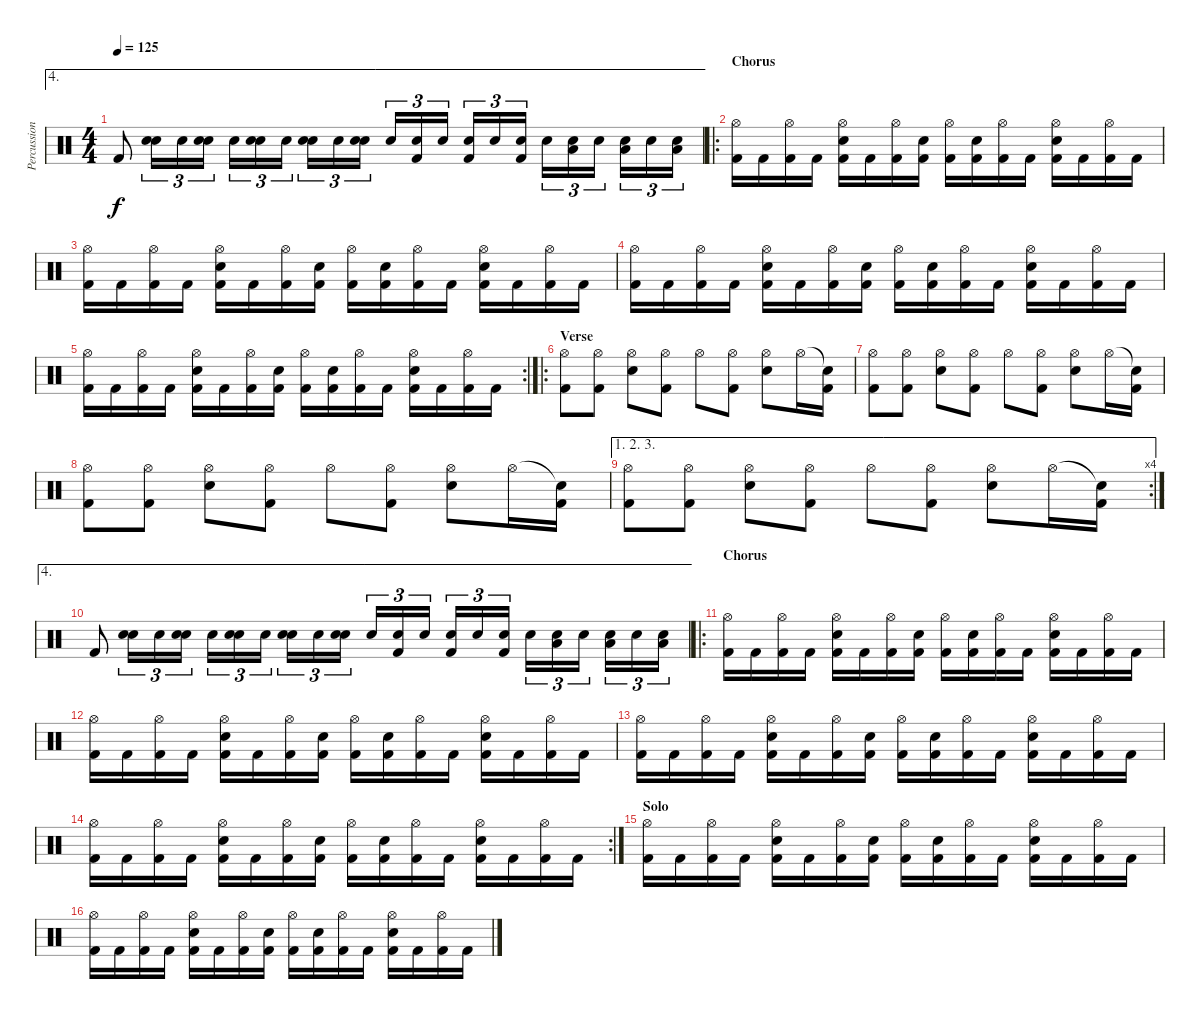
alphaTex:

\track ("Percussion" "Percussion") {instrument percussion}
\staff {score}
\articulation defaults
\ae 4
\ts (4 4)
\tempo 125
\clef neutral
\ks c "Kick (hit) 2".8{dy f}
("Snare (hit) 2" "Electric Snare (hit)").16{tu (3 2)} "Electric Snare (hit)".16{tu (3 2)} ("Snare (hit) 2" "Electric Snare (hit)").16{tu (3 2)} "Electric Snare (hit)".16{tu (3 2)} ("Snare (hit) 2" "Electric Snare (hit)").16{tu (3 2)} "Electric Snare (hit)".16{tu (3 2)} ("Snare (hit) 2" "Electric Snare (hit)").16{tu (3 2)} "Electric Snare (hit)".16{tu (3 2)} ("Snare (hit) 2" "Electric Snare (hit)").16{tu (3 2)} "Electric Snare (hit)".16{tu (3 2)} ("Kick (hit) 2" "Electric Snare (hit)").16{tu (3 2)} "Electric Snare (hit)".16{tu (3 2)} ("Kick (hit) 2" "Electric Snare (hit)").16{tu (3 2)} "Electric Snare (hit)".16{tu (3 2)} ("Kick (hit) 2" "Electric Snare (hit)").16{tu (3 2)} "Electric Snare (hit)".16{tu (3 2)} ("Low Floor Tom (hit)" "Electric Snare (hit)").16{tu (3 2)} "Electric Snare (hit)".16{tu (3 2)} ("Low Floor Tom (hit)" "Electric Snare (hit)").16{tu (3 2)} "Electric Snare (hit)".16{tu (3 2)} ("Low Floor Tom (hit)" "Electric Snare (hit)").16{tu (3 2)} |
\ro
\section ("" "Chorus")
("Hi-Hat (open)" "Kick (hit) 2").16 "Kick (hit) 2".16 ("Hi-Hat (open)" "Kick (hit) 2").16 "Kick (hit) 2".16 ("Hi-Hat (open)" "Electric Snare (hit)" "Kick (hit) 2").16 "Kick (hit) 2".16 ("Hi-Hat (open)" "Kick (hit) 2").16 ("Snare (hit) 2" "Kick (hit) 2").16 ("Hi-Hat (open)" "Kick (hit) 2").16 ("Snare (hit) 2" "Kick (hit) 2").16 ("Hi-Hat (open)" "Kick (hit) 2").16 "Kick (hit) 2".16 ("Hi-Hat (open)" "Electric Snare (hit)" "Kick (hit) 2").16 "Kick (hit) 2".16 ("Hi-Hat (open)" "Kick (hit) 2").16 "Kick (hit) 2".16 |
("Hi-Hat (open)" "Kick (hit) 2").16 "Kick (hit) 2".16 ("Hi-Hat (open)" "Kick (hit) 2").16 "Kick (hit) 2".16 ("Hi-Hat (open)" "Electric Snare (hit)" "Kick (hit) 2").16 "Kick (hit) 2".16 ("Hi-Hat (open)" "Kick (hit) 2").16 ("Snare (hit) 2" "Kick (hit) 2").16 ("Hi-Hat (open)" "Kick (hit) 2").16 ("Snare (hit) 2" "Kick (hit) 2").16 ("Hi-Hat (open)" "Kick (hit) 2").16 "Kick (hit) 2".16 ("Hi-Hat (open)" "Electric Snare (hit)" "Kick (hit) 2").16 "Kick (hit) 2".16 ("Hi-Hat (open)" "Kick (hit) 2").16 "Kick (hit) 2".16 |
("Hi-Hat (open)" "Kick (hit) 2").16 "Kick (hit) 2".16 ("Hi-Hat (open)" "Kick (hit) 2").16 "Kick (hit) 2".16 ("Hi-Hat (open)" "Electric Snare (hit)" "Kick (hit) 2").16 "Kick (hit) 2".16 ("Hi-Hat (open)" "Kick (hit) 2").16 ("Snare (hit) 2" "Kick (hit) 2").16 ("Hi-Hat (open)" "Kick (hit) 2").16 ("Snare (hit) 2" "Kick (hit) 2").16 ("Hi-Hat (open)" "Kick (hit) 2").16 "Kick (hit) 2".16 ("Hi-Hat (open)" "Electric Snare (hit)" "Kick (hit) 2").16 "Kick (hit) 2".16 ("Hi-Hat (open)" "Kick (hit) 2").16 "Kick (hit) 2".16 |
\rc 2
("Hi-Hat (open)" "Kick (hit) 2").16 "Kick (hit) 2".16 ("Hi-Hat (open)" "Kick (hit) 2").16 "Kick (hit) 2".16 ("Hi-Hat (open)" "Electric Snare (hit)" "Kick (hit) 2").16 "Kick (hit) 2".16 ("Hi-Hat (open)" "Kick (hit) 2").16 ("Snare (hit) 2" "Kick (hit) 2").16 ("Hi-Hat (open)" "Kick (hit) 2").16 ("Snare (hit) 2" "Kick (hit) 2").16 ("Hi-Hat (open)" "Kick (hit) 2").16 "Kick (hit) 2".16 ("Hi-Hat (open)" "Electric Snare (hit)" "Kick (hit) 2").16 "Kick (hit) 2".16 ("Hi-Hat (open)" "Kick (hit) 2").16 "Kick (hit) 2".16 |
\ro
\section ("" "Verse")
("Hi-Hat (open)" "Kick (hit) 2").8 ("Hi-Hat (open)" "Kick (hit) 2").8 ("Hi-Hat (open)" "Electric Snare (hit)").8 ("Hi-Hat (open)" "Kick (hit) 2").8 "Hi-Hat (open)".8 ("Hi-Hat (open)" "Kick (hit) 2").8 ("Hi-Hat (open)" "Electric Snare (hit)").8 "Hi-Hat (open)".16 ("Snare (hit)"{t} "Kick (hit) 2").16 |
("Hi-Hat (open)" "Kick (hit) 2").8 ("Hi-Hat (open)" "Kick (hit) 2").8 ("Hi-Hat (open)" "Electric Snare (hit)").8 ("Hi-Hat (open)" "Kick (hit) 2").8 "Hi-Hat (open)".8 ("Hi-Hat (open)" "Kick (hit) 2").8 ("Hi-Hat (open)" "Electric Snare (hit)").8 "Hi-Hat (open)".16 ("Snare (hit)"{t} "Kick (hit) 2").16 |
("Hi-Hat (open)" "Kick (hit) 2").8 ("Hi-Hat (open)" "Kick (hit) 2").8 ("Hi-Hat (open)" "Electric Snare (hit)").8 ("Hi-Hat (open)" "Kick (hit) 2").8 "Hi-Hat (open)".8 ("Hi-Hat (open)" "Kick (hit) 2").8 ("Hi-Hat (open)" "Electric Snare (hit)").8 "Hi-Hat (open)".16 ("Snare (hit)"{t} "Kick (hit) 2").16 |
\ae (1 2 3)
\rc 4
("Hi-Hat (open)" "Kick (hit) 2").8 ("Hi-Hat (open)" "Kick (hit) 2").8 ("Hi-Hat (open)" "Electric Snare (hit)").8 ("Hi-Hat (open)" "Kick (hit) 2").8 "Hi-Hat (open)".8 ("Hi-Hat (open)" "Kick (hit) 2").8 ("Hi-Hat (open)" "Electric Snare (hit)").8 "Hi-Hat (open)".16 ("Snare (hit)"{t} "Kick (hit) 2").16 |
\ae 4 "Kick (hit) 2".8
("Snare (hit) 2" "Electric Snare (hit)").16{tu (3 2)} "Electric Snare (hit)".16{tu (3 2)} ("Snare (hit) 2" "Electric Snare (hit)").16{tu (3 2)} "Electric Snare (hit)".16{tu (3 2)} ("Snare (hit) 2" "Electric Snare (hit)").16{tu (3 2)} "Electric Snare (hit)".16{tu (3 2)} ("Snare (hit) 2" "Electric Snare (hit)").16{tu (3 2)} "Electric Snare (hit)".16{tu (3 2)} ("Snare (hit) 2" "Electric Snare (hit)").16{tu (3 2)} "Electric Snare (hit)".16{tu (3 2)} ("Kick (hit) 2" "Electric Snare (hit)").16{tu (3 2)} "Electric Snare (hit)".16{tu (3 2)} ("Kick (hit) 2" "Electric Snare (hit)").16{tu (3 2)} "Electric Snare (hit)".16{tu (3 2)} ("Kick (hit) 2" "Electric Snare (hit)").16{tu (3 2)} "Electric Snare (hit)".16{tu (3 2)} ("Low Floor Tom (hit)" "Electric Snare (hit)").16{tu (3 2)} "Electric Snare (hit)".16{tu (3 2)} ("Low Floor Tom (hit)" "Electric Snare (hit)").16{tu (3 2)} "Electric Snare (hit)".16{tu (3 2)} ("Low Floor Tom (hit)" "Electric Snare (hit)").16{tu (3 2)} |
\ro
\section ("" "Chorus")
("Hi-Hat (open)" "Kick (hit) 2").16 "Kick (hit) 2".16 ("Hi-Hat (open)" "Kick (hit) 2").16 "Kick (hit) 2".16 ("Hi-Hat (open)" "Electric Snare (hit)" "Kick (hit) 2").16 "Kick (hit) 2".16 ("Hi-Hat (open)" "Kick (hit) 2").16 ("Snare (hit) 2" "Kick (hit) 2").16 ("Hi-Hat (open)" "Kick (hit) 2").16 ("Snare (hit) 2" "Kick (hit) 2").16 ("Hi-Hat (open)" "Kick (hit) 2").16 "Kick (hit) 2".16 ("Hi-Hat (open)" "Electric Snare (hit)" "Kick (hit) 2").16 "Kick (hit) 2".16 ("Hi-Hat (open)" "Kick (hit) 2").16 "Kick (hit) 2".16 |
("Hi-Hat (open)" "Kick (hit) 2").16 "Kick (hit) 2".16 ("Hi-Hat (open)" "Kick (hit) 2").16 "Kick (hit) 2".16 ("Hi-Hat (open)" "Electric Snare (hit)" "Kick (hit) 2").16 "Kick (hit) 2".16 ("Hi-Hat (open)" "Kick (hit) 2").16 ("Snare (hit) 2" "Kick (hit) 2").16 ("Hi-Hat (open)" "Kick (hit) 2").16 ("Snare (hit) 2" "Kick (hit) 2").16 ("Hi-Hat (open)" "Kick (hit) 2").16 "Kick (hit) 2".16 ("Hi-Hat (open)" "Electric Snare (hit)" "Kick (hit) 2").16 "Kick (hit) 2".16 ("Hi-Hat (open)" "Kick (hit) 2").16 "Kick (hit) 2".16 |
("Hi-Hat (open)" "Kick (hit) 2").16 "Kick (hit) 2".16 ("Hi-Hat (open)" "Kick (hit) 2").16 "Kick (hit) 2".16 ("Hi-Hat (open)" "Electric Snare (hit)" "Kick (hit) 2").16 "Kick (hit) 2".16 ("Hi-Hat (open)" "Kick (hit) 2").16 ("Snare (hit) 2" "Kick (hit) 2").16 ("Hi-Hat (open)" "Kick (hit) 2").16 ("Snare (hit) 2" "Kick (hit) 2").16 ("Hi-Hat (open)" "Kick (hit) 2").16 "Kick (hit) 2".16 ("Hi-Hat (open)" "Electric Snare (hit)" "Kick (hit) 2").16 "Kick (hit) 2".16 ("Hi-Hat (open)" "Kick (hit) 2").16 "Kick (hit) 2".16 |
\rc 2
("Hi-Hat (open)" "Kick (hit) 2").16 "Kick (hit) 2".16 ("Hi-Hat (open)" "Kick (hit) 2").16 "Kick (hit) 2".16 ("Hi-Hat (open)" "Electric Snare (hit)" "Kick (hit) 2").16 "Kick (hit) 2".16 ("Hi-Hat (open)" "Kick (hit) 2").16 ("Snare (hit) 2" "Kick (hit) 2").16 ("Hi-Hat (open)" "Kick (hit) 2").16 ("Snare (hit) 2" "Kick (hit) 2").16 ("Hi-Hat (open)" "Kick (hit) 2").16 "Kick (hit) 2".16 ("Hi-Hat (open)" "Electric Snare (hit)" "Kick (hit) 2").16 "Kick (hit) 2".16 ("Hi-Hat (open)" "Kick (hit) 2").16 "Kick (hit) 2".16 |
\section ("" "Solo")
("Hi-Hat (open)" "Kick (hit) 2").16 "Kick (hit) 2".16 ("Hi-Hat (open)" "Kick (hit) 2").16 "Kick (hit) 2".16 ("Hi-Hat (open)" "Electric Snare (hit)" "Kick (hit) 2").16 "Kick (hit) 2".16 ("Hi-Hat (open)" "Kick (hit) 2").16 ("Snare (hit) 2" "Kick (hit) 2").16 ("Hi-Hat (open)" "Kick (hit) 2").16 ("Snare (hit) 2" "Kick (hit) 2").16 ("Hi-Hat (open)" "Kick (hit) 2").16 "Kick (hit) 2".16 ("Hi-Hat (open)" "Electric Snare (hit)" "Kick (hit) 2").16 "Kick (hit) 2".16 ("Hi-Hat (open)" "Kick (hit) 2").16 "Kick (hit) 2".16 |
("Hi-Hat (open)" "Kick (hit) 2").16 "Kick (hit) 2".16 ("Hi-Hat (open)" "Kick (hit) 2").16 "Kick (hit) 2".16 ("Hi-Hat (open)" "Electric Snare (hit)" "Kick (hit) 2").16 "Kick (hit) 2".16 ("Hi-Hat (open)" "Kick (hit) 2").16 ("Snare (hit) 2" "Kick (hit) 2").16 ("Hi-Hat (open)" "Kick (hit) 2").16 ("Snare (hit) 2" "Kick (hit) 2").16 ("Hi-Hat (open)" "Kick (hit) 2").16 "Kick (hit) 2".16 ("Hi-Hat (open)" "Electric Snare (hit)" "Kick (hit) 2").16 "Kick (hit) 2".16 ("Hi-Hat (open)" "Kick (hit) 2").16 "Kick (hit) 2".16
